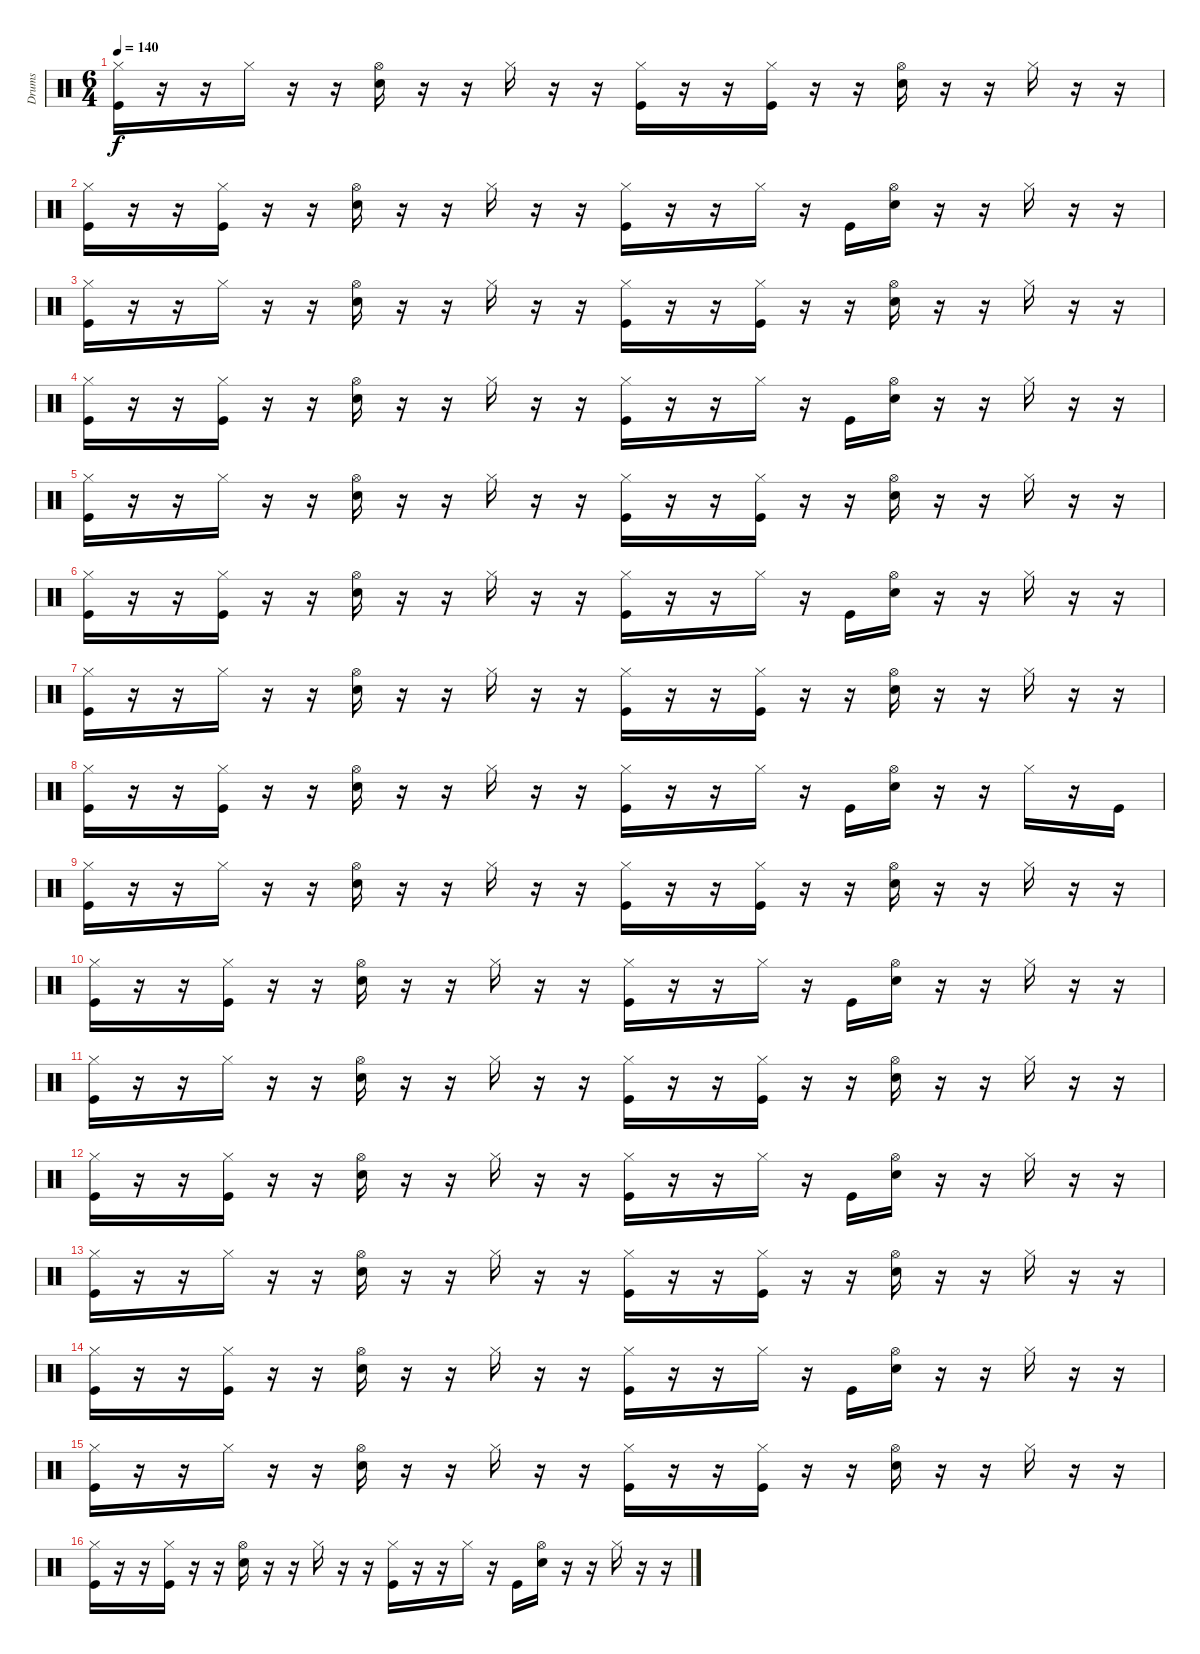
\track ("Drums" "Drums") {instrument percussion}
\staff {score}
\articulation defaults
\ts (6 4)
\tempo 140
\clef neutral
\ks c
("Hi-Hat (closed)" "Kick (hit)").16{dy f} r.16 r.16 "Hi-Hat (closed)".16 r.16 r.16 ("Hi-Hat (open)" "Snare (hit) 2").16 r.16 r.16 "Hi-Hat (closed)".16 r.16 r.16 ("Hi-Hat (closed)" "Kick (hit)").16 r.16 r.16 ("Hi-Hat (closed)" "Kick (hit)").16 r.16 r.16 ("Hi-Hat (open)" "Snare (hit) 2").16 r.16 r.16 "Hi-Hat (closed)".16 r.16 r.16 |
("Hi-Hat (closed)" "Kick (hit)").16 r.16 r.16 ("Hi-Hat (closed)" "Kick (hit)").16 r.16 r.16 ("Hi-Hat (open)" "Snare (hit) 2").16 r.16 r.16 "Hi-Hat (closed)".16 r.16 r.16 ("Hi-Hat (closed)" "Kick (hit)").16 r.16 r.16 "Hi-Hat (closed)".16 r.16 "Kick (hit)".16 ("Hi-Hat (open)" "Snare (hit) 2").16 r.16 r.16 "Hi-Hat (closed)".16 r.16 r.16 |
("Hi-Hat (closed)" "Kick (hit)").16 r.16 r.16 "Hi-Hat (closed)".16 r.16 r.16 ("Hi-Hat (open)" "Snare (hit) 2").16 r.16 r.16 "Hi-Hat (closed)".16 r.16 r.16 ("Hi-Hat (closed)" "Kick (hit)").16 r.16 r.16 ("Hi-Hat (closed)" "Kick (hit)").16 r.16 r.16 ("Hi-Hat (open)" "Snare (hit) 2").16 r.16 r.16 "Hi-Hat (closed)".16 r.16 r.16 |
("Hi-Hat (closed)" "Kick (hit)").16 r.16 r.16 ("Hi-Hat (closed)" "Kick (hit)").16 r.16 r.16 ("Hi-Hat (open)" "Snare (hit) 2").16 r.16 r.16 "Hi-Hat (closed)".16 r.16 r.16 ("Hi-Hat (closed)" "Kick (hit)").16 r.16 r.16 "Hi-Hat (closed)".16 r.16 "Kick (hit)".16 ("Hi-Hat (open)" "Snare (hit) 2").16 r.16 r.16 "Hi-Hat (closed)".16 r.16 r.16 |
("Hi-Hat (closed)" "Kick (hit)").16 r.16 r.16 "Hi-Hat (closed)".16 r.16 r.16 ("Hi-Hat (open)" "Snare (hit) 2").16 r.16 r.16 "Hi-Hat (closed)".16 r.16 r.16 ("Hi-Hat (closed)" "Kick (hit)").16 r.16 r.16 ("Hi-Hat (closed)" "Kick (hit)").16 r.16 r.16 ("Hi-Hat (open)" "Snare (hit) 2").16 r.16 r.16 "Hi-Hat (closed)".16 r.16 r.16 |
("Hi-Hat (closed)" "Kick (hit)").16 r.16 r.16 ("Hi-Hat (closed)" "Kick (hit)").16 r.16 r.16 ("Hi-Hat (open)" "Snare (hit) 2").16 r.16 r.16 "Hi-Hat (closed)".16 r.16 r.16 ("Hi-Hat (closed)" "Kick (hit)").16 r.16 r.16 "Hi-Hat (closed)".16 r.16 "Kick (hit)".16 ("Hi-Hat (open)" "Snare (hit) 2").16 r.16 r.16 "Hi-Hat (closed)".16 r.16 r.16 |
("Hi-Hat (closed)" "Kick (hit)").16 r.16 r.16 "Hi-Hat (closed)".16 r.16 r.16 ("Hi-Hat (open)" "Snare (hit) 2").16 r.16 r.16 "Hi-Hat (closed)".16 r.16 r.16 ("Hi-Hat (closed)" "Kick (hit)").16 r.16 r.16 ("Hi-Hat (closed)" "Kick (hit)").16 r.16 r.16 ("Hi-Hat (open)" "Snare (hit) 2").16 r.16 r.16 "Hi-Hat (closed)".16 r.16 r.16 |
("Hi-Hat (closed)" "Kick (hit)").16 r.16 r.16 ("Hi-Hat (closed)" "Kick (hit)").16 r.16 r.16 ("Hi-Hat (open)" "Snare (hit) 2").16 r.16 r.16 "Hi-Hat (closed)".16 r.16 r.16 ("Hi-Hat (closed)" "Kick (hit)").16 r.16 r.16 "Hi-Hat (closed)".16 r.16 "Kick (hit)".16 ("Hi-Hat (open)" "Snare (hit) 2").16 r.16 r.16 "Hi-Hat (closed)".16 r.16 "Kick (hit)".16 |
("Hi-Hat (closed)" "Kick (hit)").16 r.16 r.16 "Hi-Hat (closed)".16 r.16 r.16 ("Hi-Hat (open)" "Snare (hit) 2").16 r.16 r.16 "Hi-Hat (closed)".16 r.16 r.16 ("Hi-Hat (closed)" "Kick (hit)").16 r.16 r.16 ("Hi-Hat (closed)" "Kick (hit)").16 r.16 r.16 ("Hi-Hat (open)" "Snare (hit) 2").16 r.16 r.16 "Hi-Hat (closed)".16 r.16 r.16 |
("Hi-Hat (closed)" "Kick (hit)").16 r.16 r.16 ("Hi-Hat (closed)" "Kick (hit)").16 r.16 r.16 ("Hi-Hat (open)" "Snare (hit) 2").16 r.16 r.16 "Hi-Hat (closed)".16 r.16 r.16 ("Hi-Hat (closed)" "Kick (hit)").16 r.16 r.16 "Hi-Hat (closed)".16 r.16 "Kick (hit)".16 ("Hi-Hat (open)" "Snare (hit) 2").16 r.16 r.16 "Hi-Hat (closed)".16 r.16 r.16 |
("Hi-Hat (closed)" "Kick (hit)").16 r.16 r.16 "Hi-Hat (closed)".16 r.16 r.16 ("Hi-Hat (open)" "Snare (hit) 2").16 r.16 r.16 "Hi-Hat (closed)".16 r.16 r.16 ("Hi-Hat (closed)" "Kick (hit)").16 r.16 r.16 ("Hi-Hat (closed)" "Kick (hit)").16 r.16 r.16 ("Hi-Hat (open)" "Snare (hit) 2").16 r.16 r.16 "Hi-Hat (closed)".16 r.16 r.16 |
("Hi-Hat (closed)" "Kick (hit)").16 r.16 r.16 ("Hi-Hat (closed)" "Kick (hit)").16 r.16 r.16 ("Hi-Hat (open)" "Snare (hit) 2").16 r.16 r.16 "Hi-Hat (closed)".16 r.16 r.16 ("Hi-Hat (closed)" "Kick (hit)").16 r.16 r.16 "Hi-Hat (closed)".16 r.16 "Kick (hit)".16 ("Hi-Hat (open)" "Snare (hit) 2").16 r.16 r.16 "Hi-Hat (closed)".16 r.16 r.16 |
("Hi-Hat (closed)" "Kick (hit)").16 r.16 r.16 "Hi-Hat (closed)".16 r.16 r.16 ("Hi-Hat (open)" "Snare (hit) 2").16 r.16 r.16 "Hi-Hat (closed)".16 r.16 r.16 ("Hi-Hat (closed)" "Kick (hit)").16 r.16 r.16 ("Hi-Hat (closed)" "Kick (hit)").16 r.16 r.16 ("Hi-Hat (open)" "Snare (hit) 2").16 r.16 r.16 "Hi-Hat (closed)".16 r.16 r.16 |
("Hi-Hat (closed)" "Kick (hit)").16{volume 9} r.16 r.16 ("Hi-Hat (closed)" "Kick (hit)").16 r.16 r.16 ("Hi-Hat (open)" "Snare (hit) 2").16 r.16 r.16 "Hi-Hat (closed)".16 r.16 r.16 ("Hi-Hat (closed)" "Kick (hit)").16 r.16 r.16 "Hi-Hat (closed)".16 r.16 "Kick (hit)".16 ("Hi-Hat (open)" "Snare (hit) 2").16 r.16 r.16 "Hi-Hat (closed)".16 r.16 r.16 |
("Hi-Hat (closed)" "Kick (hit)").16 r.16 r.16 "Hi-Hat (closed)".16 r.16 r.16 ("Hi-Hat (open)" "Snare (hit) 2").16 r.16 r.16 "Hi-Hat (closed)".16 r.16 r.16 ("Hi-Hat (closed)" "Kick (hit)").16 r.16 r.16 ("Hi-Hat (closed)" "Kick (hit)").16 r.16 r.16 ("Hi-Hat (open)" "Snare (hit) 2").16 r.16 r.16 "Hi-Hat (closed)".16 r.16 r.16 |
("Hi-Hat (closed)" "Kick (hit)").16 r.16 r.16 ("Hi-Hat (closed)" "Kick (hit)").16 r.16 r.16 ("Hi-Hat (open)" "Snare (hit) 2").16 r.16 r.16 "Hi-Hat (closed)".16 r.16 r.16 ("Hi-Hat (closed)" "Kick (hit)").16 r.16 r.16 "Hi-Hat (closed)".16 r.16 "Kick (hit)".16 ("Hi-Hat (open)" "Snare (hit) 2").16 r.16 r.16 "Hi-Hat (closed)".16 r.16 r.16
